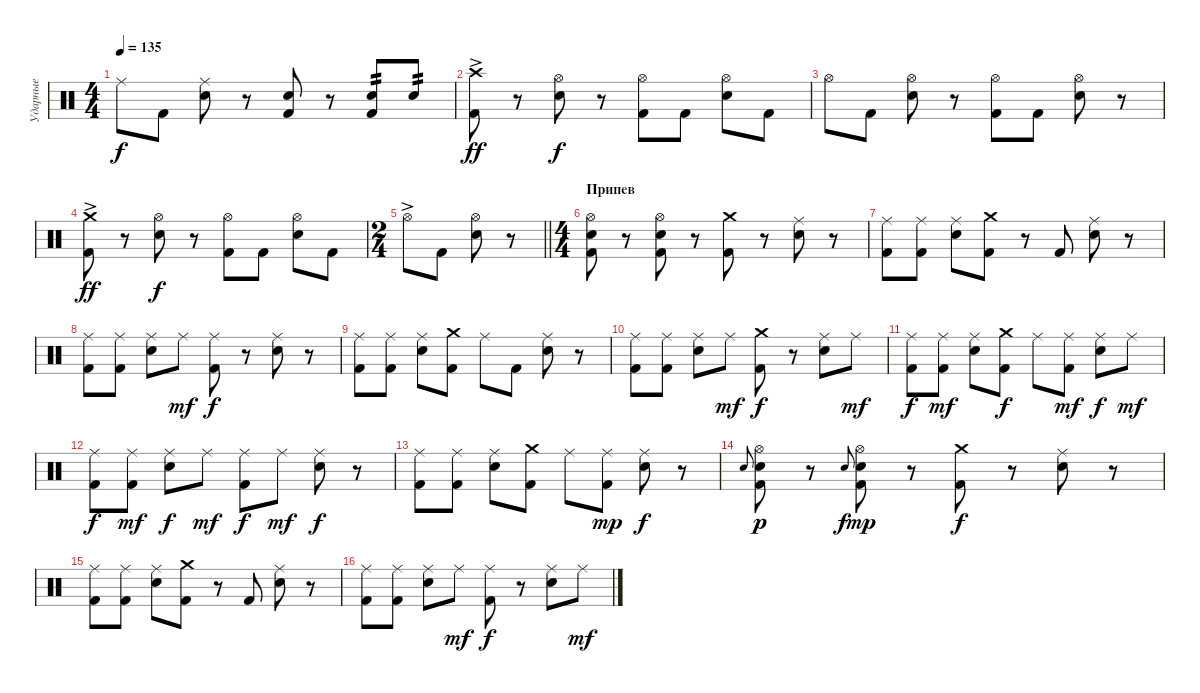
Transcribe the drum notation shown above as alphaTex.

\track ("Ударные" "Ударные") {instrument percussion}
\staff
\articulation defaults
\ts (4 4)
\tempo 135
\clef neutral
\ks c "Ride (middle)".8{dy f} "Kick (hit) 2".8
("Ride (middle)" "Electric Snare (hit)").8 r.8 ("Electric Snare (hit)" "Kick (hit) 2").8 r.8 ("Electric Snare (hit)" "Kick (hit) 2").8{tp 2} "Electric Snare (hit)".8{tp 2} |
("Crash high (hit)"{ac} "Kick (hit) 2").8{dy ff} r.8 ("Hi-Hat (open)" "Electric Snare (hit)").8{dy f} r.8 ("Hi-Hat (open)" "Kick (hit) 2").8 "Kick (hit) 2".8 ("Hi-Hat (open)" "Electric Snare (hit)").8 "Kick (hit) 2".8 |
"Hi-Hat (open)".8 "Kick (hit) 2".8 ("Hi-Hat (open)" "Electric Snare (hit)").8 r.8 ("Hi-Hat (open)" "Kick (hit) 2").8 "Kick (hit) 2".8 ("Hi-Hat (open)" "Electric Snare (hit)").8 r.8 |
("Crash medium (hit)"{ac} "Kick (hit) 2").8{dy ff} r.8 ("Hi-Hat (open)" "Electric Snare (hit)").8{dy f} r.8 ("Hi-Hat (open)" "Kick (hit) 2").8 "Kick (hit) 2".8 ("Hi-Hat (open)" "Electric Snare (hit)").8 "Kick (hit) 2".8 |
\ts (2 4)
\barLineRight lightlight "Hi-Hat (open)"{ac}.8 "Kick (hit) 2".8
("Hi-Hat (open)" "Electric Snare (hit)").8 r.8 |
\ts (4 4)
\section ("" "Припев")
("Hi-Hat (open)" "Electric Snare (hit)" "Kick (hit) 2").8 r.8 ("Hi-Hat (open)" "Electric Snare (hit)" "Kick (hit) 2").8 r.8 ("Crash medium (hit)" "Kick (hit) 2").8 r.8 ("Ride (middle)" "Electric Snare (hit)").8 r.8 |
("Ride (middle)" "Kick (hit) 2").8 ("Ride (middle)" "Kick (hit) 2").8 ("Ride (middle)" "Electric Snare (hit)").8 ("Crash medium (hit)" "Kick (hit) 2").8 r.8 "Kick (hit) 2".8 ("Ride (middle)" "Electric Snare (hit)").8 r.8 |
("Ride (middle)" "Kick (hit) 2").8 ("Ride (middle)" "Kick (hit) 2").8 ("Ride (middle)" "Electric Snare (hit)").8 "Ride (middle)".8{dy mf} ("Ride (middle)" "Kick (hit) 2").8{dy f} r.8 ("Ride (middle)" "Electric Snare (hit)").8 r.8 |
("Ride (middle)" "Kick (hit) 2").8 ("Ride (middle)" "Kick (hit) 2").8 ("Ride (middle)" "Electric Snare (hit)").8 ("Crash medium (hit)" "Kick (hit) 2").8 "Ride (middle)".8 "Kick (hit) 2".8 ("Ride (middle)" "Electric Snare (hit)").8 r.8 |
("Ride (middle)" "Kick (hit) 2").8 ("Ride (middle)" "Kick (hit) 2").8 ("Ride (middle)" "Electric Snare (hit)").8 "Ride (middle)".8{dy mf} ("Crash medium (hit)" "Kick (hit) 2").8{dy f} r.8 ("Ride (middle)" "Electric Snare (hit)").8 "Ride (middle)".8{dy mf} |
("Ride (middle)" "Kick (hit) 2").8{dy f} ("Ride (middle)" "Kick (hit) 2").8{dy mf} ("Ride (middle)" "Electric Snare (hit)").8 ("Crash medium (hit)" "Kick (hit) 2").8{dy f} "Ride (middle)".8 ("Ride (middle)" "Kick (hit) 2").8{dy mf} ("Ride (middle)" "Electric Snare (hit)").8{dy f} "Ride (middle)".8{dy mf} |
("Ride (middle)" "Kick (hit) 2").8{dy f} ("Ride (middle)" "Kick (hit) 2").8{dy mf} ("Ride (middle)" "Electric Snare (hit)").8{dy f} "Ride (middle)".8{dy mf} ("Ride (middle)" "Kick (hit) 2").8{dy f} "Ride (middle)".8{dy mf} ("Ride (middle)" "Electric Snare (hit)").8{dy f} r.8 |
("Ride (middle)" "Kick (hit) 2").8 ("Ride (middle)" "Kick (hit) 2").8 ("Ride (middle)" "Electric Snare (hit)").8 ("Crash medium (hit)" "Kick (hit) 2").8 "Ride (middle)".8 ("Ride (middle)" "Kick (hit) 2").8{dy mp} ("Ride (middle)" "Electric Snare (hit)").8{dy f} r.8 |
"Electric Snare (hit)".8{gr onbeat} ("Hi-Hat (open)" "Electric Snare (hit)" "Kick (hit) 2").8{dy p} r.8 "Electric Snare (hit)".8{gr onbeat dy f} ("Hi-Hat (open)" "Electric Snare (hit)" "Kick (hit) 2").8{dy mp} r.8 ("Crash medium (hit)" "Kick (hit) 2").8{dy f} r.8 ("Ride (middle)" "Electric Snare (hit)").8 r.8 |
("Ride (middle)" "Kick (hit) 2").8 ("Ride (middle)" "Kick (hit) 2").8 ("Ride (middle)" "Electric Snare (hit)").8 ("Crash medium (hit)" "Kick (hit) 2").8 r.8 "Kick (hit) 2".8 ("Ride (middle)" "Electric Snare (hit)").8 r.8 |
("Ride (middle)" "Kick (hit) 2").8 ("Ride (middle)" "Kick (hit) 2").8 ("Ride (middle)" "Electric Snare (hit)").8 "Ride (middle)".8{dy mf} ("Ride (middle)" "Kick (hit) 2").8{dy f} r.8 ("Ride (middle)" "Electric Snare (hit)").8 "Ride (middle)".8{dy mf}
